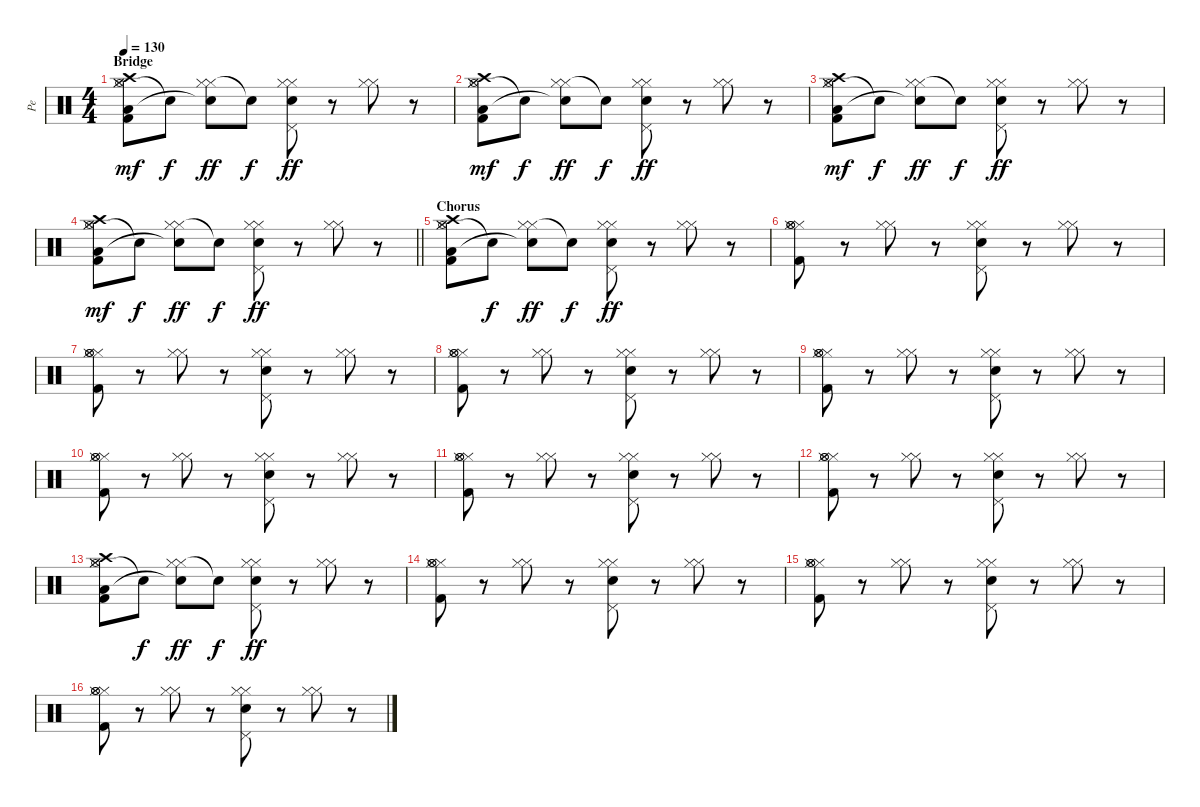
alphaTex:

\track ("Pe" "Pe") {instrument percussion}
\staff {score}
\articulation defaults
\ts (4 4)
\section ("" "Bridge")
\tempo 130
\clef neutral
\ks c
("Hi-Hat (closed)" "Hi-Hat (closed)" "Low Floor Tom (hit)" "Hi-Hat (open)" "Crash high (hit)" "Kick (hit) 2").8{dy mf} "Snare (hit)"{t}.8{dy f} ("Hi-Hat (closed)" "Hi-Hat (closed)" "Snare (hit)"{t}).8{dy ff} "Snare (hit)"{t}.8{dy f} ("Hi-Hat (closed)" "Hi-Hat (closed)" "Pedal Hi-Hat (hit)" "Electric Snare (hit)").8{dy ff} r.8 ("Hi-Hat (closed)" "Hi-Hat (closed)").8 r.8 |
("Hi-Hat (closed)" "Hi-Hat (closed)" "Low Floor Tom (hit)" "Hi-Hat (open)" "Crash high (hit)" "Kick (hit) 2").8{dy mf} "Snare (hit)"{t}.8{dy f} ("Hi-Hat (closed)" "Hi-Hat (closed)" "Snare (hit)"{t}).8{dy ff} "Snare (hit)"{t}.8{dy f} ("Hi-Hat (closed)" "Hi-Hat (closed)" "Pedal Hi-Hat (hit)" "Electric Snare (hit)").8{dy ff} r.8 ("Hi-Hat (closed)" "Hi-Hat (closed)").8 r.8 |
("Hi-Hat (closed)" "Hi-Hat (closed)" "Low Floor Tom (hit)" "Hi-Hat (open)" "Crash high (hit)" "Kick (hit) 2").8{dy mf} "Snare (hit)"{t}.8{dy f} ("Hi-Hat (closed)" "Hi-Hat (closed)" "Snare (hit)"{t}).8{dy ff} "Snare (hit)"{t}.8{dy f} ("Hi-Hat (closed)" "Hi-Hat (closed)" "Pedal Hi-Hat (hit)" "Electric Snare (hit)").8{dy ff} r.8 ("Hi-Hat (closed)" "Hi-Hat (closed)").8 r.8 |
\barLineRight lightlight
("Hi-Hat (closed)" "Hi-Hat (closed)" "Low Floor Tom (hit)" "Hi-Hat (open)" "Crash high (hit)" "Kick (hit) 2").8{dy mf} "Snare (hit)"{t}.8{dy f} ("Hi-Hat (closed)" "Hi-Hat (closed)" "Snare (hit)"{t}).8{dy ff} "Snare (hit)"{t}.8{dy f} ("Hi-Hat (closed)" "Hi-Hat (closed)" "Pedal Hi-Hat (hit)" "Electric Snare (hit)").8{dy ff} r.8 ("Hi-Hat (closed)" "Hi-Hat (closed)").8 r.8 |
\section ("" "Chorus")
("Hi-Hat (closed)" "Hi-Hat (closed)" "Low Floor Tom (hit)" "Hi-Hat (open)" "Crash high (hit)" "Kick (hit) 2").8 "Snare (hit)"{t}.8{dy f} ("Hi-Hat (closed)" "Hi-Hat (closed)" "Snare (hit)"{t}).8{dy ff} "Snare (hit)"{t}.8{dy f} ("Hi-Hat (closed)" "Hi-Hat (closed)" "Pedal Hi-Hat (hit)" "Electric Snare (hit)").8{dy ff} r.8 ("Hi-Hat (closed)" "Hi-Hat (closed)").8 r.8 |
("Hi-Hat (closed)" "Hi-Hat (closed)" "Hi-Hat (open)" "Hi-Hat (open)" "Kick (hit) 2").8 r.8 ("Hi-Hat (closed)" "Hi-Hat (closed)").8 r.8 ("Hi-Hat (closed)" "Hi-Hat (closed)" "Pedal Hi-Hat (hit)" "Electric Snare (hit)").8 r.8 ("Hi-Hat (closed)" "Hi-Hat (closed)").8 r.8 |
("Hi-Hat (closed)" "Hi-Hat (closed)" "Hi-Hat (open)" "Hi-Hat (open)" "Kick (hit) 2").8 r.8 ("Hi-Hat (closed)" "Hi-Hat (closed)").8 r.8 ("Hi-Hat (closed)" "Hi-Hat (closed)" "Pedal Hi-Hat (hit)" "Electric Snare (hit)").8 r.8 ("Hi-Hat (closed)" "Hi-Hat (closed)").8 r.8 |
("Hi-Hat (closed)" "Hi-Hat (closed)" "Hi-Hat (open)" "Hi-Hat (open)" "Kick (hit) 2").8 r.8 ("Hi-Hat (closed)" "Hi-Hat (closed)").8 r.8 ("Hi-Hat (closed)" "Hi-Hat (closed)" "Pedal Hi-Hat (hit)" "Electric Snare (hit)").8 r.8 ("Hi-Hat (closed)" "Hi-Hat (closed)").8 r.8 |
("Hi-Hat (closed)" "Hi-Hat (closed)" "Hi-Hat (open)" "Hi-Hat (open)" "Kick (hit) 2").8 r.8 ("Hi-Hat (closed)" "Hi-Hat (closed)").8 r.8 ("Hi-Hat (closed)" "Hi-Hat (closed)" "Pedal Hi-Hat (hit)" "Electric Snare (hit)").8 r.8 ("Hi-Hat (closed)" "Hi-Hat (closed)").8 r.8 |
("Hi-Hat (closed)" "Hi-Hat (closed)" "Hi-Hat (open)" "Hi-Hat (open)" "Kick (hit) 2").8 r.8 ("Hi-Hat (closed)" "Hi-Hat (closed)").8 r.8 ("Hi-Hat (closed)" "Hi-Hat (closed)" "Pedal Hi-Hat (hit)" "Electric Snare (hit)").8 r.8 ("Hi-Hat (closed)" "Hi-Hat (closed)").8 r.8 |
("Hi-Hat (closed)" "Hi-Hat (closed)" "Hi-Hat (open)" "Hi-Hat (open)" "Kick (hit) 2").8 r.8 ("Hi-Hat (closed)" "Hi-Hat (closed)").8 r.8 ("Hi-Hat (closed)" "Hi-Hat (closed)" "Pedal Hi-Hat (hit)" "Electric Snare (hit)").8 r.8 ("Hi-Hat (closed)" "Hi-Hat (closed)").8 r.8 |
("Hi-Hat (closed)" "Hi-Hat (closed)" "Hi-Hat (open)" "Hi-Hat (open)" "Kick (hit) 2").8 r.8 ("Hi-Hat (closed)" "Hi-Hat (closed)").8 r.8 ("Hi-Hat (closed)" "Hi-Hat (closed)" "Pedal Hi-Hat (hit)" "Electric Snare (hit)").8 r.8 ("Hi-Hat (closed)" "Hi-Hat (closed)").8 r.8 |
("Hi-Hat (closed)" "Hi-Hat (closed)" "Low Floor Tom (hit)" "Hi-Hat (open)" "Crash high (hit)" "Kick (hit) 2").8 "Snare (hit)"{t}.8{dy f} ("Hi-Hat (closed)" "Hi-Hat (closed)" "Snare (hit)"{t}).8{dy ff} "Snare (hit)"{t}.8{dy f} ("Hi-Hat (closed)" "Hi-Hat (closed)" "Pedal Hi-Hat (hit)" "Electric Snare (hit)").8{dy ff} r.8 ("Hi-Hat (closed)" "Hi-Hat (closed)").8 r.8 |
("Hi-Hat (closed)" "Hi-Hat (closed)" "Hi-Hat (open)" "Hi-Hat (open)" "Kick (hit) 2").8 r.8 ("Hi-Hat (closed)" "Hi-Hat (closed)").8 r.8 ("Hi-Hat (closed)" "Hi-Hat (closed)" "Pedal Hi-Hat (hit)" "Electric Snare (hit)").8 r.8 ("Hi-Hat (closed)" "Hi-Hat (closed)").8 r.8 |
("Hi-Hat (closed)" "Hi-Hat (closed)" "Hi-Hat (open)" "Hi-Hat (open)" "Kick (hit) 2").8 r.8 ("Hi-Hat (closed)" "Hi-Hat (closed)").8 r.8 ("Hi-Hat (closed)" "Hi-Hat (closed)" "Pedal Hi-Hat (hit)" "Electric Snare (hit)").8 r.8 ("Hi-Hat (closed)" "Hi-Hat (closed)").8 r.8 |
("Hi-Hat (closed)" "Hi-Hat (closed)" "Hi-Hat (open)" "Hi-Hat (open)" "Kick (hit) 2").8 r.8 ("Hi-Hat (closed)" "Hi-Hat (closed)").8 r.8 ("Hi-Hat (closed)" "Hi-Hat (closed)" "Pedal Hi-Hat (hit)" "Electric Snare (hit)").8 r.8 ("Hi-Hat (closed)" "Hi-Hat (closed)").8 r.8
